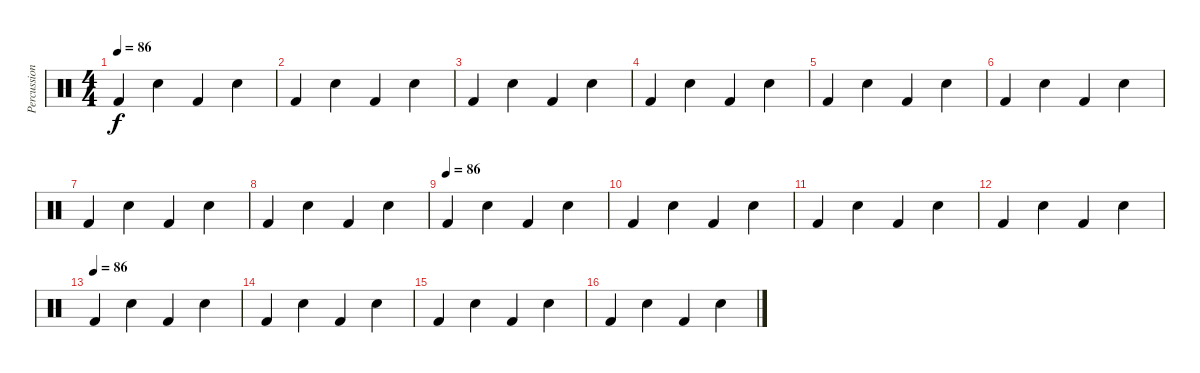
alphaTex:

\track ("Percussions" "Percussion") {instrument percussion}
\staff {score}
\articulation defaults
\ts (4 4)
\tempo 86
\clef neutral
\ks c "Kick (hit) 2".4{dy f} "Snare (hit) 2".4 "Kick (hit) 2".4 "Snare (hit) 2".4
|
"Kick (hit) 2".4 "Snare (hit) 2".4 "Kick (hit) 2".4 "Snare (hit) 2".4 |
"Kick (hit) 2".4 "Snare (hit) 2".4 "Kick (hit) 2".4 "Snare (hit) 2".4 |
"Kick (hit) 2".4 "Snare (hit) 2".4 "Kick (hit) 2".4 "Snare (hit) 2".4 |
"Kick (hit) 2".4 "Snare (hit) 2".4 "Kick (hit) 2".4 "Snare (hit) 2".4 |
"Kick (hit) 2".4 "Snare (hit) 2".4 "Kick (hit) 2".4 "Snare (hit) 2".4 |
"Kick (hit) 2".4 "Snare (hit) 2".4 "Kick (hit) 2".4 "Snare (hit) 2".4 |
"Kick (hit) 2".4 "Snare (hit) 2".4 "Kick (hit) 2".4 "Snare (hit) 2".4 |
\tempo (86)
"Kick (hit) 2".4 "Snare (hit) 2".4 "Kick (hit) 2".4 "Snare (hit) 2".4 |
"Kick (hit) 2".4 "Snare (hit) 2".4 "Kick (hit) 2".4 "Snare (hit) 2".4 |
"Kick (hit) 2".4 "Snare (hit) 2".4 "Kick (hit) 2".4 "Snare (hit) 2".4 |
"Kick (hit) 2".4 "Snare (hit) 2".4 "Kick (hit) 2".4 "Snare (hit) 2".4 |
\tempo (86)
"Kick (hit) 2".4 "Snare (hit) 2".4 "Kick (hit) 2".4 "Snare (hit) 2".4 |
"Kick (hit) 2".4 "Snare (hit) 2".4 "Kick (hit) 2".4 "Snare (hit) 2".4 |
"Kick (hit) 2".4 "Snare (hit) 2".4 "Kick (hit) 2".4 "Snare (hit) 2".4 |
"Kick (hit) 2".4 "Snare (hit) 2".4 "Kick (hit) 2".4 "Snare (hit) 2".4
